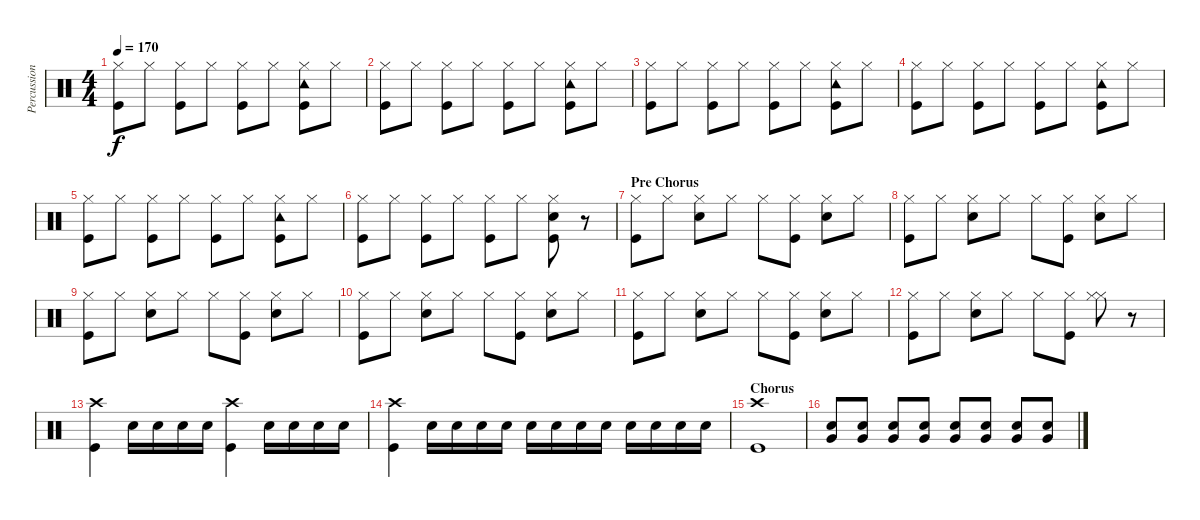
\track ("Percussion" "Percussion") {instrument percussion}
\staff {score}
\articulation defaults
\ts (4 4)
\tempo 170
\clef neutral
\ks c
("Hi-Hat (closed)" "Kick (hit)").8{dy f} "Hi-Hat (closed)".8 ("Hi-Hat (closed)" "Kick (hit)").8 "Hi-Hat (closed)".8 ("Hi-Hat (closed)" "Kick (hit)").8 "Hi-Hat (closed)".8 ("Hi-Hat (closed)" "Tambourine (hit)" "Kick (hit)").8 "Hi-Hat (closed)".8 |
("Hi-Hat (closed)" "Kick (hit)").8 "Hi-Hat (closed)".8 ("Hi-Hat (closed)" "Kick (hit)").8 "Hi-Hat (closed)".8 ("Hi-Hat (closed)" "Kick (hit)").8 "Hi-Hat (closed)".8 ("Hi-Hat (closed)" "Tambourine (hit)" "Kick (hit)").8 "Hi-Hat (closed)".8 |
("Hi-Hat (closed)" "Kick (hit)").8 "Hi-Hat (closed)".8 ("Hi-Hat (closed)" "Kick (hit)").8 "Hi-Hat (closed)".8 ("Hi-Hat (closed)" "Kick (hit)").8 "Hi-Hat (closed)".8 ("Hi-Hat (closed)" "Tambourine (hit)" "Kick (hit)").8 "Hi-Hat (closed)".8 |
("Hi-Hat (closed)" "Kick (hit)").8 "Hi-Hat (closed)".8 ("Hi-Hat (closed)" "Kick (hit)").8 "Hi-Hat (closed)".8 ("Hi-Hat (closed)" "Kick (hit)").8 "Hi-Hat (closed)".8 ("Hi-Hat (closed)" "Tambourine (hit)" "Kick (hit)").8 "Hi-Hat (closed)".8 |
("Hi-Hat (closed)" "Kick (hit)").8 "Hi-Hat (closed)".8 ("Hi-Hat (closed)" "Kick (hit)").8 "Hi-Hat (closed)".8 ("Hi-Hat (closed)" "Kick (hit)").8 "Hi-Hat (closed)".8 ("Hi-Hat (closed)" "Tambourine (hit)" "Kick (hit)").8 "Hi-Hat (closed)".8 |
("Hi-Hat (closed)" "Kick (hit)").8 "Hi-Hat (closed)".8 ("Hi-Hat (closed)" "Kick (hit)").8 "Hi-Hat (closed)".8 ("Hi-Hat (closed)" "Kick (hit)").8 "Hi-Hat (closed)".8 ("Hi-Hat (closed)" "Snare (hit) 2" "Kick (hit)").8 r.8 |
\section ("" "Pre Chorus")
("Hi-Hat (closed)" "Kick (hit)").8 "Hi-Hat (closed)".8 ("Hi-Hat (closed)" "Snare (hit) 2").8 "Hi-Hat (closed)".8 "Hi-Hat (closed)".8 ("Hi-Hat (closed)" "Kick (hit)").8 ("Hi-Hat (closed)" "Snare (hit) 2").8 "Hi-Hat (closed)".8 |
("Hi-Hat (closed)" "Kick (hit)").8 "Hi-Hat (closed)".8 ("Hi-Hat (closed)" "Snare (hit) 2").8 "Hi-Hat (closed)".8 "Hi-Hat (closed)".8 ("Hi-Hat (closed)" "Kick (hit)").8 ("Hi-Hat (closed)" "Snare (hit) 2").8 "Hi-Hat (closed)".8 |
("Hi-Hat (closed)" "Kick (hit)").8 "Hi-Hat (closed)".8 ("Hi-Hat (closed)" "Snare (hit) 2").8 "Hi-Hat (closed)".8 "Hi-Hat (closed)".8 ("Hi-Hat (closed)" "Kick (hit)").8 ("Hi-Hat (closed)" "Snare (hit) 2").8 "Hi-Hat (closed)".8 |
("Hi-Hat (closed)" "Kick (hit)").8 "Hi-Hat (closed)".8 ("Hi-Hat (closed)" "Snare (hit) 2").8 "Hi-Hat (closed)".8 "Hi-Hat (closed)".8 ("Hi-Hat (closed)" "Kick (hit)").8 ("Hi-Hat (closed)" "Snare (hit) 2").8 "Hi-Hat (closed)".8 |
("Hi-Hat (closed)" "Kick (hit)").8 "Hi-Hat (closed)".8 ("Hi-Hat (closed)" "Snare (hit) 2").8 "Hi-Hat (closed)".8 "Hi-Hat (closed)".8 ("Hi-Hat (closed)" "Kick (hit)").8 ("Hi-Hat (closed)" "Snare (hit) 2").8 "Hi-Hat (closed)".8 |
("Hi-Hat (closed)" "Kick (hit)").8 "Hi-Hat (closed)".8 ("Hi-Hat (closed)" "Snare (hit) 2").8 "Hi-Hat (closed)".8 "Hi-Hat (closed)".8 ("Hi-Hat (closed)" "Kick (hit)").8 ("Hi-Hat (closed)" "Hi-Hat (closed)").8 r.8 |
("Crash high (hit)" "Kick (hit)").4 "Snare (hit) 2".16 "Snare (hit) 2".16 "Snare (hit) 2".16 "Snare (hit) 2".16 ("Crash high (hit)" "Kick (hit)").4 "Snare (hit) 2".16 "Snare (hit) 2".16 "Snare (hit) 2".16 "Snare (hit) 2".16 |
("Crash high (hit)" "Kick (hit)").4 "Snare (hit) 2".16 "Snare (hit) 2".16 "Snare (hit) 2".16 "Snare (hit) 2".16 "Snare (hit) 2".16 "Snare (hit) 2".16 "Snare (hit) 2".16 "Snare (hit) 2".16 "Snare (hit) 2".16 "Snare (hit) 2".16 "Snare (hit) 2".16 "Snare (hit) 2".16 |
\section ("" "Chorus")
("Crash high (hit)" "Kick (hit)").1 |
("Snare (hit) 2" "Very Low Tom (hit)").8 ("Snare (hit) 2" "Very Low Tom (hit)").8 ("Snare (hit) 2" "Very Low Tom (hit)").8 ("Snare (hit) 2" "Very Low Tom (hit)").8 ("Snare (hit) 2" "Very Low Tom (hit)").8 ("Snare (hit) 2" "Very Low Tom (hit)").8 ("Snare (hit) 2" "Very Low Tom (hit)").8 ("Snare (hit) 2" "Very Low Tom (hit)").8
